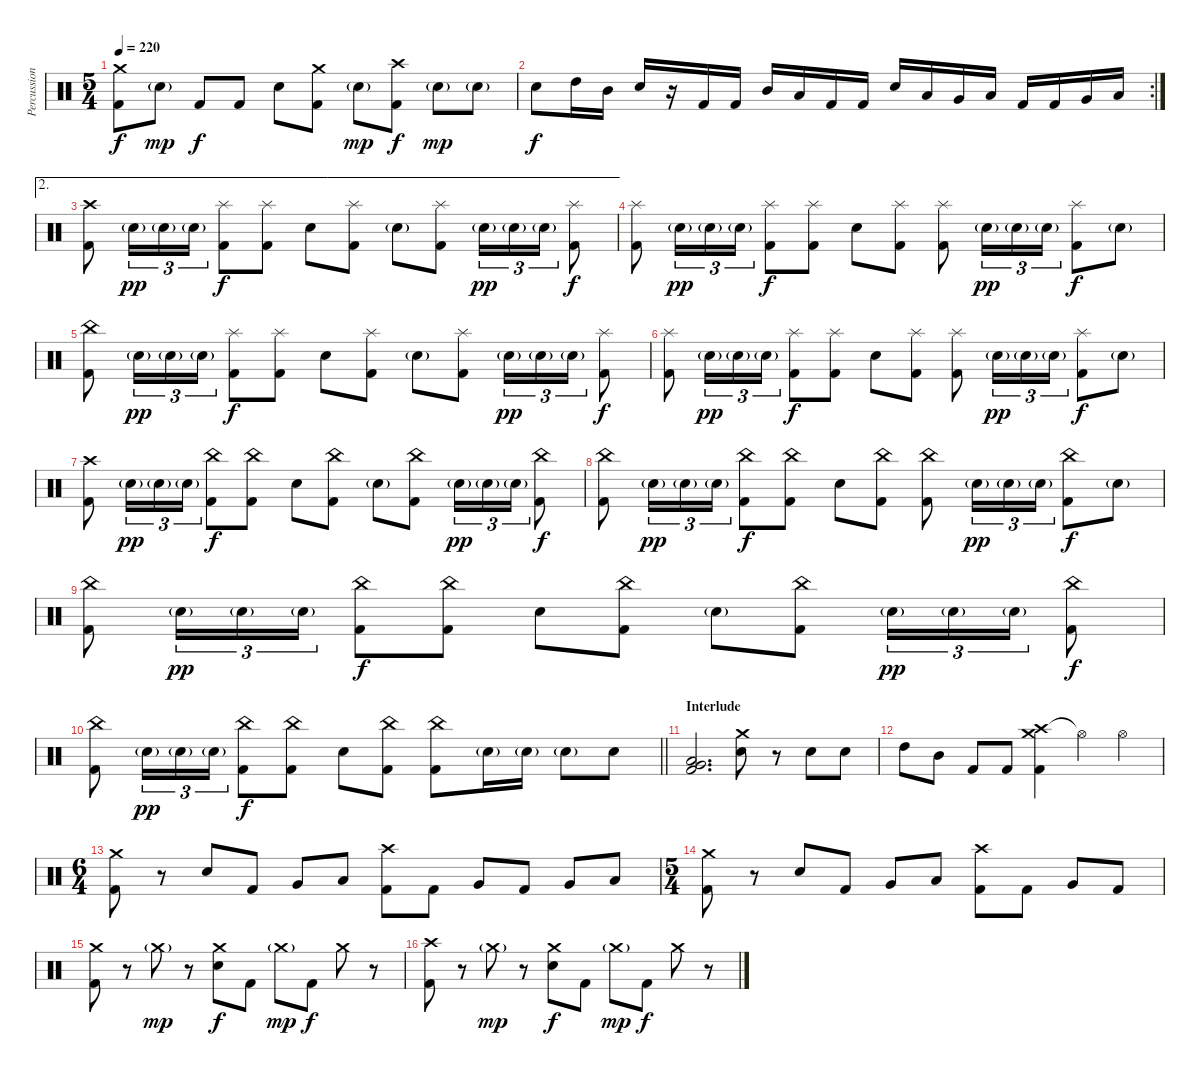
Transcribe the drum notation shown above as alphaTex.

\track ("Percussion" "Percussion") {instrument percussion}
\staff {score}
\articulation defaults
\ts (5 4)
\tempo 220
\clef neutral
\ks c
("Crash medium (hit)" "Kick (hit) 2").8{dy f} "Electric Snare (hit)"{g}.8{dy mp} "Kick (hit) 2".8{dy f} "Kick (hit) 2".8 "Electric Snare (hit)".8 ("Crash medium (hit)" "Kick (hit) 2").8 "Electric Snare (hit)"{g}.8{dy mp} ("Crash high (hit)" "Kick (hit) 2").8{dy f} "Electric Snare (hit)"{g}.8{dy mp} "Electric Snare (hit)"{g}.8 |
\rc 2 "Electric Snare (hit)".8{dy f} "High Tom (hit)".16 "Mid Tom (hit)".16 "Electric Snare (hit)".16
r.16 "Kick (hit) 2".16 "Kick (hit) 2".16 "Mid Tom (hit)".16 "Low Tom (hit)".16 "Kick (hit) 2".16 "Kick (hit) 2".16 "Electric Snare (hit)".16 "Low Tom (hit)".16 "Very Low Tom (hit)".16 "Low Floor Tom (hit)".16 "Kick (hit) 2".16 "Kick (hit) 2".16 "Very Low Tom (hit)".16 "Low Floor Tom (hit)".16 |
\ae 2
("Crash high (hit)" "Kick (hit) 2").8 "Electric Snare (hit)"{g}.16{tu (3 2) dy pp} "Electric Snare (hit)"{g}.16{tu (3 2)} "Electric Snare (hit)"{g}.16{tu (3 2)} ("Splash (hit)" "Kick (hit) 2").8{dy f} ("Splash (hit)" "Kick (hit) 2").8 "Electric Snare (hit)".8 ("Splash (hit)" "Kick (hit) 2").8 "Electric Snare (hit)"{g}.8 ("Splash (hit)" "Kick (hit) 2").8 "Electric Snare (hit)"{g}.16{tu (3 2) dy pp} "Electric Snare (hit)"{g}.16{tu (3 2)} "Electric Snare (hit)"{g}.16{tu (3 2)} ("Splash (hit)" "Kick (hit) 2").8{dy f} |
("Splash (hit)" "Kick (hit) 2").8 "Electric Snare (hit)"{g}.16{tu (3 2) dy pp} "Electric Snare (hit)"{g}.16{tu (3 2)} "Electric Snare (hit)"{g}.16{tu (3 2)} ("Splash (hit)" "Kick (hit) 2").8{dy f} ("Splash (hit)" "Kick (hit) 2").8 "Electric Snare (hit)".8 ("Splash (hit)" "Kick (hit) 2").8 ("Splash (hit)" "Kick (hit) 2").8 "Electric Snare (hit)"{g}.16{tu (3 2) dy pp} "Electric Snare (hit)"{g}.16{tu (3 2)} "Electric Snare (hit)"{g}.16{tu (3 2)} ("Splash (hit)" "Kick (hit) 2").8{dy f} "Electric Snare (hit)"{g}.8 |
("China (hit)" "Kick (hit) 2").8 "Electric Snare (hit)"{g}.16{tu (3 2) dy pp} "Electric Snare (hit)"{g}.16{tu (3 2)} "Electric Snare (hit)"{g}.16{tu (3 2)} ("Splash (hit)" "Kick (hit) 2").8{dy f} ("Splash (hit)" "Kick (hit) 2").8 "Electric Snare (hit)".8 ("Splash (hit)" "Kick (hit) 2").8 "Electric Snare (hit)"{g}.8 ("Splash (hit)" "Kick (hit) 2").8 "Electric Snare (hit)"{g}.16{tu (3 2) dy pp} "Electric Snare (hit)"{g}.16{tu (3 2)} "Electric Snare (hit)"{g}.16{tu (3 2)} ("Splash (hit)" "Kick (hit) 2").8{dy f} |
("Splash (hit)" "Kick (hit) 2").8 "Electric Snare (hit)"{g}.16{tu (3 2) dy pp} "Electric Snare (hit)"{g}.16{tu (3 2)} "Electric Snare (hit)"{g}.16{tu (3 2)} ("Splash (hit)" "Kick (hit) 2").8{dy f} ("Splash (hit)" "Kick (hit) 2").8 "Electric Snare (hit)".8 ("Splash (hit)" "Kick (hit) 2").8 ("Splash (hit)" "Kick (hit) 2").8 "Electric Snare (hit)"{g}.16{tu (3 2) dy pp} "Electric Snare (hit)"{g}.16{tu (3 2)} "Electric Snare (hit)"{g}.16{tu (3 2)} ("Splash (hit)" "Kick (hit) 2").8{dy f} "Electric Snare (hit)"{g}.8 |
("Crash high (hit)" "Kick (hit) 2").8 "Electric Snare (hit)"{g}.16{tu (3 2) dy pp} "Electric Snare (hit)"{g}.16{tu (3 2)} "Electric Snare (hit)"{g}.16{tu (3 2)} ("China (hit)" "Kick (hit) 2").8{dy f} ("China (hit)" "Kick (hit) 2").8 "Electric Snare (hit)".8 ("China (hit)" "Kick (hit) 2").8 "Electric Snare (hit)"{g}.8 ("China (hit)" "Kick (hit) 2").8 "Electric Snare (hit)"{g}.16{tu (3 2) dy pp} "Electric Snare (hit)"{g}.16{tu (3 2)} "Electric Snare (hit)"{g}.16{tu (3 2)} ("China (hit)" "Kick (hit) 2").8{dy f} |
("China (hit)" "Kick (hit) 2").8 "Electric Snare (hit)"{g}.16{tu (3 2) dy pp} "Electric Snare (hit)"{g}.16{tu (3 2)} "Electric Snare (hit)"{g}.16{tu (3 2)} ("China (hit)" "Kick (hit) 2").8{dy f} ("China (hit)" "Kick (hit) 2").8 "Electric Snare (hit)".8 ("China (hit)" "Kick (hit) 2").8 ("China (hit)" "Kick (hit) 2").8 "Electric Snare (hit)"{g}.16{tu (3 2) dy pp} "Electric Snare (hit)"{g}.16{tu (3 2)} "Electric Snare (hit)"{g}.16{tu (3 2)} ("China (hit)" "Kick (hit) 2").8{dy f} "Electric Snare (hit)"{g}.8 |
("China (hit)" "Kick (hit) 2").8 "Electric Snare (hit)"{g}.16{tu (3 2) dy pp} "Electric Snare (hit)"{g}.16{tu (3 2)} "Electric Snare (hit)"{g}.16{tu (3 2)} ("China (hit)" "Kick (hit) 2").8{dy f} ("China (hit)" "Kick (hit) 2").8 "Electric Snare (hit)".8 ("China (hit)" "Kick (hit) 2").8 "Electric Snare (hit)"{g}.8 ("China (hit)" "Kick (hit) 2").8 "Electric Snare (hit)"{g}.16{tu (3 2) dy pp} "Electric Snare (hit)"{g}.16{tu (3 2)} "Electric Snare (hit)"{g}.16{tu (3 2)} ("China (hit)" "Kick (hit) 2").8{dy f} |
\barLineRight lightlight
("China (hit)" "Kick (hit) 2").8 "Electric Snare (hit)"{g}.16{tu (3 2) dy pp} "Electric Snare (hit)"{g}.16{tu (3 2)} "Electric Snare (hit)"{g}.16{tu (3 2)} ("China (hit)" "Kick (hit) 2").8{dy f} ("China (hit)" "Kick (hit) 2").8 "Electric Snare (hit)".8 ("China (hit)" "Kick (hit) 2").8 ("China (hit)" "Kick (hit) 2").8 "Electric Snare (hit)"{g}.16 "Electric Snare (hit)"{g}.16 "Electric Snare (hit)"{g}.8 "Electric Snare (hit)".8 |
\section ("" "Interlude")
("Very Low Tom (hit)" "Low Floor Tom (hit)" "Kick (hit) 2").2{d} ("Crash medium (hit)" "Electric Snare (hit)").8 r.8 "Electric Snare (hit)".8 "Electric Snare (hit)".8 |
"High Tom (hit)".8 "Mid Tom (hit)".8 "Kick (hit) 2".8 "Kick (hit) 2".8 ("Crash high (hit)" "Crash medium (hit)" "Kick (hit) 2").4 "Hi-Hat (open)"{t}.4 "Hi-Hat (open)".4 |
\ts (6 4)
("Crash medium (hit)" "Kick (hit) 2").8 r.8 "Electric Snare (hit)".8 "Kick (hit) 2".8 "Very Low Tom (hit)".8 "Low Floor Tom (hit)".8 ("Crash high (hit)" "Kick (hit) 2").8 "Kick (hit) 2".8 "Very Low Tom (hit)".8 "Kick (hit) 2".8 "Very Low Tom (hit)".8 "Low Floor Tom (hit)".8 |
\ts (5 4)
("Crash medium (hit)" "Kick (hit) 2").8 r.8 "Electric Snare (hit)".8 "Kick (hit) 2".8 "Very Low Tom (hit)".8 "Low Floor Tom (hit)".8 ("Crash high (hit)" "Kick (hit) 2").8 "Kick (hit) 2".8 "Very Low Tom (hit)".8 "Kick (hit) 2".8 |
("Crash medium (hit)" "Kick (hit) 2").8 r.8 "Crash medium (hit)"{g}.8{dy mp} r.8 ("Crash medium (hit)" "Electric Snare (hit)").8{dy f} "Kick (hit) 2".8 "Crash medium (hit)"{g}.8{dy mp} "Kick (hit) 2".8{dy f} "Crash medium (hit)".8 r.8 |
("Crash high (hit)" "Kick (hit) 2").8 r.8 "Crash medium (hit)"{g}.8{dy mp} r.8 ("Crash medium (hit)" "Electric Snare (hit)").8{dy f} "Kick (hit) 2".8 "Crash medium (hit)"{g}.8{dy mp} "Kick (hit) 2".8{dy f} "Crash medium (hit)".8 r.8
